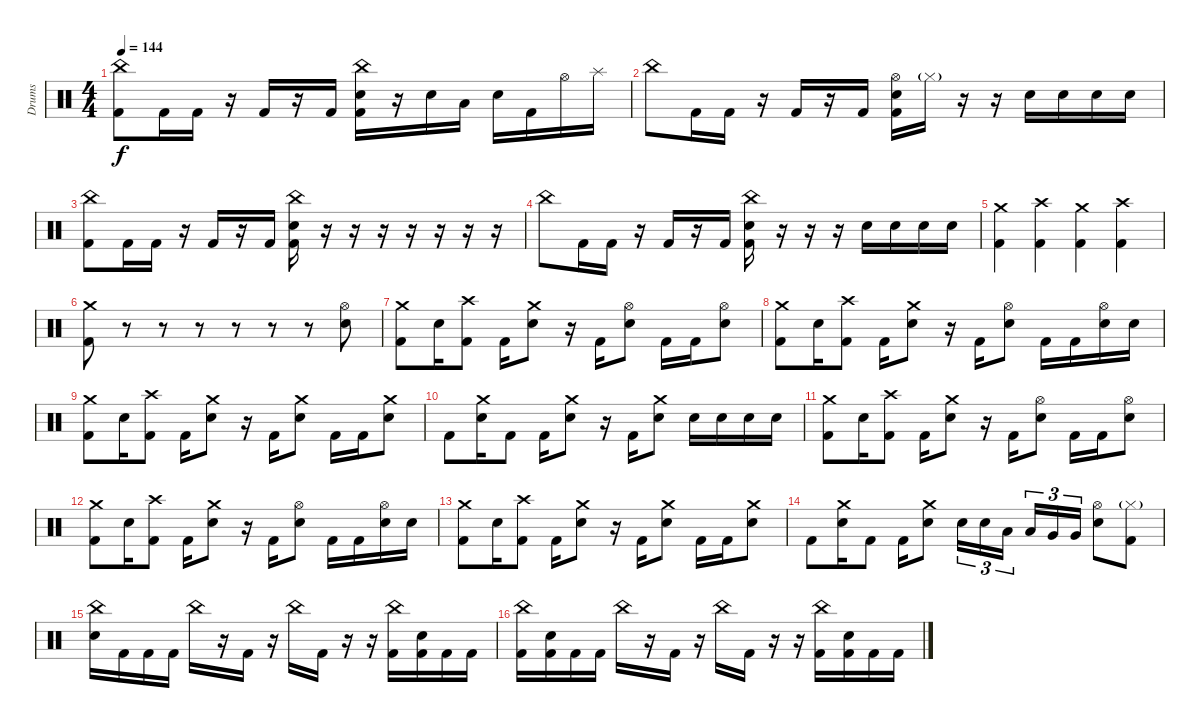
\track ("Drums" "Drums") {instrument percussion}
\staff {score}
\articulation defaults
\ts (4 4)
\tempo 144
\clef neutral
\ks c
("China (hit)" "Kick (hit) 2").8{dy f} "Kick (hit) 2".16 "Kick (hit) 2".16 r.16 "Kick (hit) 2".16 r.16 "Kick (hit) 2".16 ("China (hit)" "Electric Snare (hit)" "Kick (hit) 2").16 r.16 "Electric Snare (hit)".16 "Low Tom (hit)".16 "Electric Snare (hit)".16 "Kick (hit) 2".16 "Hi-Hat (open)".16 "Splash (hit)".16 |
"China (hit)".8 "Kick (hit) 2".16 "Kick (hit) 2".16 r.16 "Kick (hit) 2".16 r.16 "Kick (hit) 2".16 ("Hi-Hat (open)" "Electric Snare (hit)" "Kick (hit) 2").16 "Hi-Hat (closed)"{g}.16 r.16 r.16 "Electric Snare (hit)".16 "Electric Snare (hit)".16 "Electric Snare (hit)".16 "Electric Snare (hit)".16 |
("China (hit)" "Kick (hit) 2").8 "Kick (hit) 2".16 "Kick (hit) 2".16 r.16 "Kick (hit) 2".16 r.16 "Kick (hit) 2".16 ("China (hit)" "Electric Snare (hit)" "Kick (hit) 2").16 r.16 r.16 r.16 r.16 r.16 r.16 r.16 |
"China (hit)".8 "Kick (hit) 2".16 "Kick (hit) 2".16 r.16 "Kick (hit) 2".16 r.16 "Kick (hit) 2".16 ("China (hit)" "Electric Snare (hit)" "Kick (hit) 2").16 r.16 r.16 r.16 "Electric Snare (hit)".16 "Electric Snare (hit)".16 "Electric Snare (hit)".16 "Electric Snare (hit)".16 |
("Crash medium (hit)" "Kick (hit) 2").4 ("Crash high (hit)" "Kick (hit) 2").4 ("Crash medium (hit)" "Kick (hit) 2").4 ("Crash high (hit)" "Kick (hit) 2").4 |
("Crash medium (hit)" "Kick (hit) 2").8 r.8 r.8 r.8 r.8 r.8 r.8 ("Hi-Hat (open)" "Electric Snare (hit)").8 |
("Crash medium (hit)" "Kick (hit) 2").8 "Electric Snare (hit)".16 ("Crash high (hit)" "Kick (hit) 2").8 "Kick (hit) 2".16 ("Crash medium (hit)" "Electric Snare (hit)").8 r.16 "Kick (hit) 2".16 ("Hi-Hat (open)" "Electric Snare (hit)").8 "Kick (hit) 2".16 "Kick (hit) 2".16 ("Hi-Hat (open)" "Electric Snare (hit)").8 |
("Crash medium (hit)" "Kick (hit) 2").8 "Electric Snare (hit)".16 ("Crash high (hit)" "Kick (hit) 2").8 "Kick (hit) 2".16 ("Crash medium (hit)" "Electric Snare (hit)").8 r.16 "Kick (hit) 2".16 ("Hi-Hat (open)" "Electric Snare (hit)").8 "Kick (hit) 2".16 "Kick (hit) 2".16 ("Hi-Hat (open)" "Electric Snare (hit)").16 "Electric Snare (hit)".16 |
("Crash medium (hit)" "Kick (hit) 2").8 "Electric Snare (hit)".16 ("Crash high (hit)" "Kick (hit) 2").8 "Kick (hit) 2".16 ("Crash medium (hit)" "Electric Snare (hit)").8 r.16 "Kick (hit) 2".16 ("Crash medium (hit)" "Electric Snare (hit)").8 "Kick (hit) 2".16 "Kick (hit) 2".16 ("Crash medium (hit)" "Electric Snare (hit)").8 |
"Kick (hit) 2".8 ("Crash medium (hit)" "Electric Snare (hit)").16 "Kick (hit) 2".8 "Kick (hit) 2".16 ("Crash medium (hit)" "Electric Snare (hit)").8 r.16 "Kick (hit) 2".16 ("Crash medium (hit)" "Electric Snare (hit)").8 "Electric Snare (hit)".16 "Electric Snare (hit)".16 "Electric Snare (hit)".16 "Electric Snare (hit)".16 |
("Crash medium (hit)" "Kick (hit) 2").8 "Electric Snare (hit)".16 ("Crash high (hit)" "Kick (hit) 2").8 "Kick (hit) 2".16 ("Crash medium (hit)" "Electric Snare (hit)").8 r.16 "Kick (hit) 2".16 ("Hi-Hat (open)" "Electric Snare (hit)").8 "Kick (hit) 2".16 "Kick (hit) 2".16 ("Hi-Hat (open)" "Electric Snare (hit)").8 |
("Crash medium (hit)" "Kick (hit) 2").8 "Electric Snare (hit)".16 ("Crash high (hit)" "Kick (hit) 2").8 "Kick (hit) 2".16 ("Crash medium (hit)" "Electric Snare (hit)").8 r.16 "Kick (hit) 2".16 ("Hi-Hat (open)" "Electric Snare (hit)").8 "Kick (hit) 2".16 "Kick (hit) 2".16 ("Hi-Hat (open)" "Electric Snare (hit)").16 "Electric Snare (hit)".16 |
("Crash medium (hit)" "Kick (hit) 2").8 "Electric Snare (hit)".16 ("Crash high (hit)" "Kick (hit) 2").8 "Kick (hit) 2".16 ("Crash medium (hit)" "Electric Snare (hit)").8 r.16 "Kick (hit) 2".16 ("Crash medium (hit)" "Electric Snare (hit)").8 "Kick (hit) 2".16 "Kick (hit) 2".16 ("Crash medium (hit)" "Electric Snare (hit)").8 |
"Kick (hit) 2".8 ("Crash medium (hit)" "Electric Snare (hit)").16 "Kick (hit) 2".8 "Kick (hit) 2".16 ("Crash medium (hit)" "Electric Snare (hit)").8 "Electric Snare (hit)".16{tu (3 2)} "Electric Snare (hit)".16{tu (3 2)} "Low Tom (hit)".16{tu (3 2)} "Low Tom (hit)".16{tu (3 2)} "Very Low Tom (hit)".16{tu (3 2)} "Very Low Tom (hit)".16{tu (3 2)} ("Hi-Hat (open)" "Electric Snare (hit)").8 ("Hi-Hat (closed)"{g} "Kick (hit) 2").8 |
("China (hit)" "Electric Snare (hit)").16 "Kick (hit) 2".16 "Kick (hit) 2".16 "Kick (hit) 2".16 "China (hit)".16 r.16 "Kick (hit) 2".16 r.16 "China (hit)".16 "Kick (hit) 2".16 r.16 r.16 ("China (hit)" "Kick (hit) 2").16 ("Electric Snare (hit)" "Kick (hit) 2").16 "Kick (hit) 2".16 "Kick (hit) 2".16 |
("China (hit)" "Kick (hit) 2").16 ("Electric Snare (hit)" "Kick (hit) 2").16 "Kick (hit) 2".16 "Kick (hit) 2".16 "China (hit)".16 r.16 "Kick (hit) 2".16 r.16 "China (hit)".16 "Kick (hit) 2".16 r.16 r.16 ("China (hit)" "Kick (hit) 2").16 ("Electric Snare (hit)" "Kick (hit) 2").16 "Kick (hit) 2".16 "Kick (hit) 2".16
